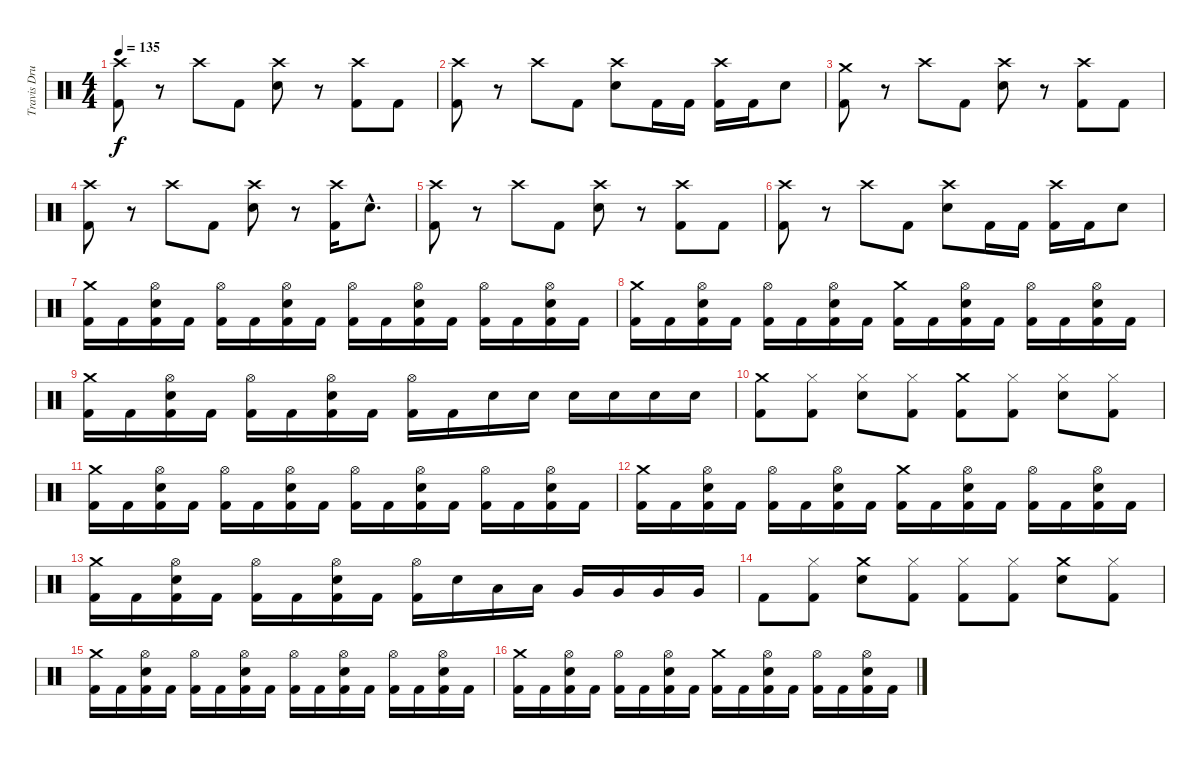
\track ("Travis Drums" "Travis Dru") {instrument percussion}
\staff {score}
\articulation defaults
\ts (4 4)
\tempo 135
\clef neutral
\ks c
("Crash high (hit)" "Kick (hit) 2").8{dy f} r.8 "Crash high (hit)".8 "Kick (hit) 2".8 ("Crash high (hit)" "Electric Snare (hit)").8 r.8 ("Crash high (hit)" "Kick (hit) 2").8 "Kick (hit) 2".8 |
("Crash high (hit)" "Kick (hit) 2").8 r.8 "Crash high (hit)".8 "Kick (hit) 2".8 ("Crash high (hit)" "Electric Snare (hit)").8 "Kick (hit) 2".16 "Kick (hit) 2".16 ("Crash high (hit)" "Kick (hit) 2").16 "Kick (hit) 2".16 "Electric Snare (hit)".8 |
("Crash medium (hit)" "Kick (hit) 2").8 r.8 "Crash high (hit)".8 "Kick (hit) 2".8 ("Crash high (hit)" "Electric Snare (hit)").8 r.8 ("Crash high (hit)" "Kick (hit) 2").8 "Kick (hit) 2".8 |
("Crash high (hit)" "Kick (hit) 2").8 r.8 "Crash high (hit)".8 "Kick (hit) 2".8 ("Crash high (hit)" "Electric Snare (hit)").8 r.8 ("Crash high (hit)" "Kick (hit) 2").16 "Electric Snare (hit)"{hac}.8{d} |
("Crash high (hit)" "Kick (hit) 2").8 r.8 "Crash high (hit)".8 "Kick (hit) 2".8 ("Crash high (hit)" "Electric Snare (hit)").8 r.8 ("Crash high (hit)" "Kick (hit) 2").8 "Kick (hit) 2".8 |
("Crash high (hit)" "Kick (hit) 2").8 r.8 "Crash high (hit)".8 "Kick (hit) 2".8 ("Crash high (hit)" "Electric Snare (hit)").8 "Kick (hit) 2".16 "Kick (hit) 2".16 ("Crash high (hit)" "Kick (hit) 2").16 "Kick (hit) 2".16 "Electric Snare (hit)".8 |
("Crash medium (hit)" "Kick (hit) 2").16 "Kick (hit) 2".16 ("Hi-Hat (open)" "Electric Snare (hit)" "Kick (hit) 2").16 "Kick (hit) 2".16 ("Hi-Hat (open)" "Kick (hit) 2").16 "Kick (hit) 2".16 ("Hi-Hat (open)" "Electric Snare (hit)" "Kick (hit) 2").16 "Kick (hit) 2".16 ("Hi-Hat (open)" "Kick (hit) 2").16 "Kick (hit) 2".16 ("Hi-Hat (open)" "Electric Snare (hit)" "Kick (hit) 2").16 "Kick (hit) 2".16 ("Hi-Hat (open)" "Kick (hit) 2").16 "Kick (hit) 2".16 ("Hi-Hat (open)" "Electric Snare (hit)" "Kick (hit) 2").16 "Kick (hit) 2".16 |
("Crash medium (hit)" "Kick (hit) 2").16 "Kick (hit) 2".16 ("Hi-Hat (open)" "Electric Snare (hit)" "Kick (hit) 2").16 "Kick (hit) 2".16 ("Hi-Hat (open)" "Kick (hit) 2").16 "Kick (hit) 2".16 ("Hi-Hat (open)" "Electric Snare (hit)" "Kick (hit) 2").16 "Kick (hit) 2".16 ("Crash medium (hit)" "Kick (hit) 2").16 "Kick (hit) 2".16 ("Hi-Hat (open)" "Electric Snare (hit)" "Kick (hit) 2").16 "Kick (hit) 2".16 ("Hi-Hat (open)" "Kick (hit) 2").16 "Kick (hit) 2".16 ("Hi-Hat (open)" "Electric Snare (hit)" "Kick (hit) 2").16 "Kick (hit) 2".16 |
("Crash medium (hit)" "Kick (hit) 2").16 "Kick (hit) 2".16 ("Hi-Hat (open)" "Electric Snare (hit)" "Kick (hit) 2").16 "Kick (hit) 2".16 ("Hi-Hat (open)" "Kick (hit) 2").16 "Kick (hit) 2".16 ("Hi-Hat (open)" "Electric Snare (hit)" "Kick (hit) 2").16 "Kick (hit) 2".16 ("Hi-Hat (open)" "Kick (hit) 2").16 "Kick (hit) 2".16 "Electric Snare (hit)".16 "Electric Snare (hit)".16 "Electric Snare (hit)".16 "Electric Snare (hit)".16 "Electric Snare (hit)".16 "Electric Snare (hit)".16 |
("Crash medium (hit)" "Kick (hit) 2").8 ("Hi-Hat (closed)" "Kick (hit) 2").8 ("Hi-Hat (closed)" "Electric Snare (hit)").8 ("Hi-Hat (closed)" "Kick (hit) 2").8 ("Crash medium (hit)" "Kick (hit) 2").8 ("Hi-Hat (closed)" "Kick (hit) 2").8 ("Hi-Hat (closed)" "Electric Snare (hit)").8 ("Hi-Hat (closed)" "Kick (hit) 2").8 |
("Crash medium (hit)" "Kick (hit) 2").16 "Kick (hit) 2".16 ("Hi-Hat (open)" "Electric Snare (hit)" "Kick (hit) 2").16 "Kick (hit) 2".16 ("Hi-Hat (open)" "Kick (hit) 2").16 "Kick (hit) 2".16 ("Hi-Hat (open)" "Electric Snare (hit)" "Kick (hit) 2").16 "Kick (hit) 2".16 ("Hi-Hat (open)" "Kick (hit) 2").16 "Kick (hit) 2".16 ("Hi-Hat (open)" "Electric Snare (hit)" "Kick (hit) 2").16 "Kick (hit) 2".16 ("Hi-Hat (open)" "Kick (hit) 2").16 "Kick (hit) 2".16 ("Hi-Hat (open)" "Electric Snare (hit)" "Kick (hit) 2").16 "Kick (hit) 2".16 |
("Crash medium (hit)" "Kick (hit) 2").16 "Kick (hit) 2".16 ("Hi-Hat (open)" "Electric Snare (hit)" "Kick (hit) 2").16 "Kick (hit) 2".16 ("Hi-Hat (open)" "Kick (hit) 2").16 "Kick (hit) 2".16 ("Hi-Hat (open)" "Electric Snare (hit)" "Kick (hit) 2").16 "Kick (hit) 2".16 ("Crash medium (hit)" "Kick (hit) 2").16 "Kick (hit) 2".16 ("Hi-Hat (open)" "Electric Snare (hit)" "Kick (hit) 2").16 "Kick (hit) 2".16 ("Hi-Hat (open)" "Kick (hit) 2").16 "Kick (hit) 2".16 ("Hi-Hat (open)" "Electric Snare (hit)" "Kick (hit) 2").16 "Kick (hit) 2".16 |
("Crash medium (hit)" "Kick (hit) 2").16 "Kick (hit) 2".16 ("Hi-Hat (open)" "Electric Snare (hit)" "Kick (hit) 2").16 "Kick (hit) 2".16 ("Hi-Hat (open)" "Kick (hit) 2").16 "Kick (hit) 2".16 ("Hi-Hat (open)" "Electric Snare (hit)" "Kick (hit) 2").16 "Kick (hit) 2".16 ("Hi-Hat (open)" "Kick (hit) 2").16 "Electric Snare (hit)".16 "Low Tom (hit)".16 "Low Tom (hit)".16 "Very Low Tom (hit)".16 "Very Low Tom (hit)".16 "Very Low Tom (hit)".16 "Very Low Tom (hit)".16 |
"Kick (hit) 2".8 ("Hi-Hat (closed)" "Kick (hit) 2").8 ("Crash medium (hit)" "Electric Snare (hit)").8 ("Hi-Hat (closed)" "Kick (hit) 2").8 ("Hi-Hat (closed)" "Kick (hit) 2").8 ("Hi-Hat (closed)" "Kick (hit) 2").8 ("Crash medium (hit)" "Electric Snare (hit)").8 ("Hi-Hat (closed)" "Kick (hit) 2").8 |
("Crash medium (hit)" "Kick (hit) 2").16 "Kick (hit) 2".16 ("Hi-Hat (open)" "Electric Snare (hit)" "Kick (hit) 2").16 "Kick (hit) 2".16 ("Hi-Hat (open)" "Kick (hit) 2").16 "Kick (hit) 2".16 ("Hi-Hat (open)" "Electric Snare (hit)" "Kick (hit) 2").16 "Kick (hit) 2".16 ("Hi-Hat (open)" "Kick (hit) 2").16 "Kick (hit) 2".16 ("Hi-Hat (open)" "Electric Snare (hit)" "Kick (hit) 2").16 "Kick (hit) 2".16 ("Hi-Hat (open)" "Kick (hit) 2").16 "Kick (hit) 2".16 ("Hi-Hat (open)" "Electric Snare (hit)" "Kick (hit) 2").16 "Kick (hit) 2".16 |
("Crash medium (hit)" "Kick (hit) 2").16 "Kick (hit) 2".16 ("Hi-Hat (open)" "Electric Snare (hit)" "Kick (hit) 2").16 "Kick (hit) 2".16 ("Hi-Hat (open)" "Kick (hit) 2").16 "Kick (hit) 2".16 ("Hi-Hat (open)" "Electric Snare (hit)" "Kick (hit) 2").16 "Kick (hit) 2".16 ("Crash medium (hit)" "Kick (hit) 2").16 "Kick (hit) 2".16 ("Hi-Hat (open)" "Electric Snare (hit)" "Kick (hit) 2").16 "Kick (hit) 2".16 ("Hi-Hat (open)" "Kick (hit) 2").16 "Kick (hit) 2".16 ("Hi-Hat (open)" "Electric Snare (hit)" "Kick (hit) 2").16 "Kick (hit) 2".16
